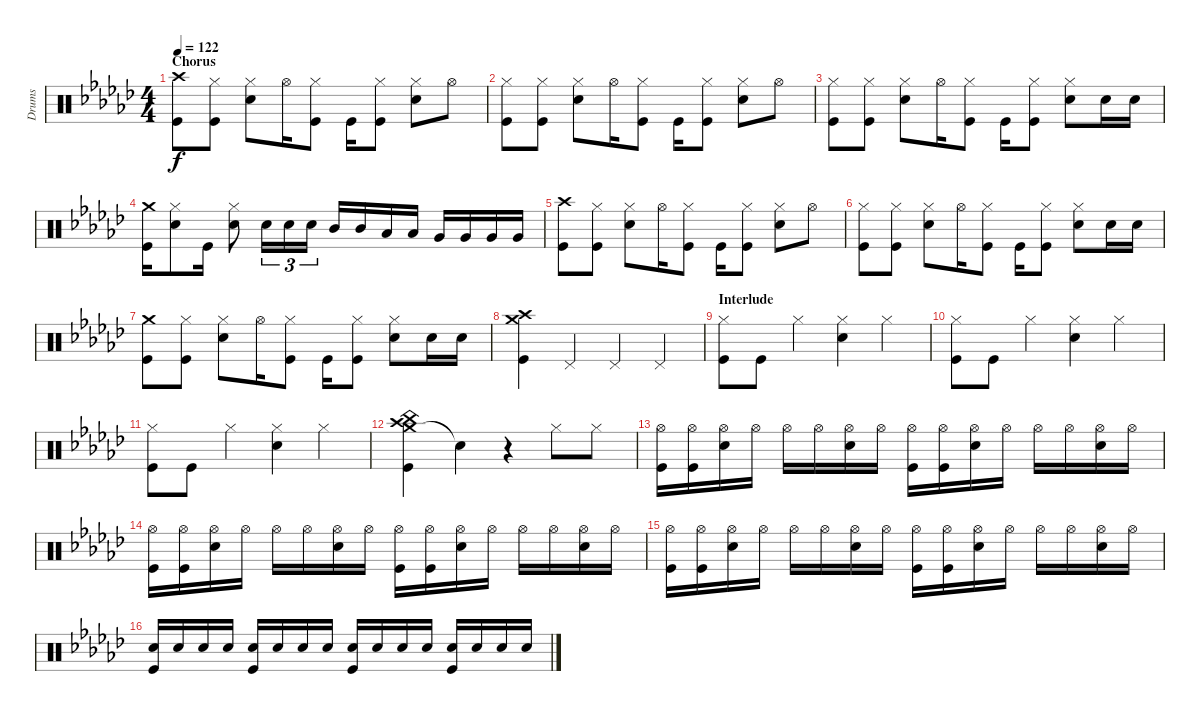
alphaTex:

\track ("Drums" "Drums") {instrument percussion}
\staff {score}
\articulation defaults
\ts (4 4)
\section ("" "Chorus")
\tempo 122
\clef neutral
\ks ebminor
("Crash high (hit)" "Kick (hit)").8{dy f} ("Hi-Hat (closed)" "Kick (hit)").8 ("Hi-Hat (closed)" "Snare (hit) 2").8 "Hi-Hat (open)".16 ("Hi-Hat (closed)" "Kick (hit)").8 "Kick (hit)".16 ("Hi-Hat (closed)" "Kick (hit)").8 ("Hi-Hat (closed)" "Snare (hit) 2").8 "Hi-Hat (open)".8 |
("Hi-Hat (closed)" "Kick (hit)").8 ("Hi-Hat (closed)" "Kick (hit)").8 ("Hi-Hat (closed)" "Snare (hit) 2").8 "Hi-Hat (open)".16 ("Hi-Hat (closed)" "Kick (hit)").8 "Kick (hit)".16 ("Hi-Hat (closed)" "Kick (hit)").8 ("Hi-Hat (closed)" "Snare (hit) 2").8 "Hi-Hat (open)".8 |
("Hi-Hat (closed)" "Kick (hit)").8 ("Hi-Hat (closed)" "Kick (hit)").8 ("Hi-Hat (closed)" "Snare (hit) 2").8 "Hi-Hat (open)".16 ("Hi-Hat (closed)" "Kick (hit)").8 "Kick (hit)".16 ("Hi-Hat (closed)" "Kick (hit)").8 ("Hi-Hat (closed)" "Snare (hit) 2").8 "Snare (hit) 2".16 "Snare (hit) 2".16 |
("Crash medium (hit)" "Kick (hit)").16 ("Hi-Hat (closed)" "Snare (hit) 2").8 "Kick (hit)".16 ("Hi-Hat (closed)" "Snare (hit) 2").8 "Snare (hit) 2".16{tu (3 2)} "Snare (hit) 2".16{tu (3 2)} "Snare (hit) 2".16{tu (3 2)} "Mid Tom (hit)".16 "Mid Tom (hit)".16 "Low Tom (hit)".16 "Low Tom (hit)".16 "Very Low Tom (hit)".16 "Very Low Tom (hit)".16 "Very Low Tom (hit)".16 "Very Low Tom (hit)".16 |
("Crash high (hit)" "Kick (hit)").8 ("Hi-Hat (closed)" "Kick (hit)").8 ("Hi-Hat (closed)" "Snare (hit) 2").8 "Hi-Hat (open)".16 ("Hi-Hat (closed)" "Kick (hit)").8 "Kick (hit)".16 ("Hi-Hat (closed)" "Kick (hit)").8 ("Hi-Hat (closed)" "Snare (hit) 2").8 "Hi-Hat (open)".8 |
("Hi-Hat (closed)" "Kick (hit)").8 ("Hi-Hat (closed)" "Kick (hit)").8 ("Hi-Hat (closed)" "Snare (hit) 2").8 "Hi-Hat (open)".16 ("Hi-Hat (closed)" "Kick (hit)").8 "Kick (hit)".16 ("Hi-Hat (closed)" "Kick (hit)").8 ("Hi-Hat (closed)" "Snare (hit) 2").8 "Snare (hit) 2".16 "Snare (hit) 2".16 |
("Crash medium (hit)" "Kick (hit)").8 ("Hi-Hat (closed)" "Kick (hit)").8 ("Hi-Hat (closed)" "Snare (hit) 2").8 "Hi-Hat (open)".16 ("Hi-Hat (closed)" "Kick (hit)").8 "Kick (hit)".16 ("Hi-Hat (closed)" "Kick (hit)").8 ("Hi-Hat (closed)" "Snare (hit) 2").8 "Snare (hit) 2".16 "Snare (hit) 2".16 |
("Crash medium (hit)" "Crash high (hit)" "Kick (hit)").4 "Pedal Hi-Hat (hit)".4 "Pedal Hi-Hat (hit)".4 "Pedal Hi-Hat (hit)".4 |
\section ("" "Interlude")
("Hi-Hat (closed)" "Kick (hit)").8 "Kick (hit)".8 "Hi-Hat (closed)".4 ("Hi-Hat (closed)" "Snare (hit) 2").4 "Hi-Hat (closed)".4 |
("Hi-Hat (closed)" "Kick (hit)").8 "Kick (hit)".8 "Hi-Hat (closed)".4 ("Hi-Hat (closed)" "Snare (hit) 2").4 "Hi-Hat (closed)".4 |
("Hi-Hat (closed)" "Kick (hit)").8 "Kick (hit)".8 "Hi-Hat (closed)".4 ("Hi-Hat (closed)" "Snare (hit) 2").4 "Hi-Hat (closed)".4 |
("Crash medium (hit)" "China (hit)" "Crash high (hit)" "Kick (hit)").4 "Snare (hit)"{t}.4 r.4 "Hi-Hat (closed)".8 "Hi-Hat (closed)".8 |
("Hi-Hat (open)" "Kick (hit)").16 ("Hi-Hat (open)" "Kick (hit)").16 ("Hi-Hat (open)" "Snare (hit) 2").16 "Hi-Hat (open)".16 "Hi-Hat (open)".16 "Hi-Hat (open)".16 ("Hi-Hat (open)" "Snare (hit) 2").16 "Hi-Hat (open)".16 ("Hi-Hat (open)" "Kick (hit)").16 ("Hi-Hat (open)" "Kick (hit)").16 ("Hi-Hat (open)" "Snare (hit) 2").16 "Hi-Hat (open)".16 "Hi-Hat (open)".16 "Hi-Hat (open)".16 ("Hi-Hat (open)" "Snare (hit) 2").16 "Hi-Hat (open)".16 |
("Hi-Hat (open)" "Kick (hit)").16 ("Hi-Hat (open)" "Kick (hit)").16 ("Hi-Hat (open)" "Snare (hit) 2").16 "Hi-Hat (open)".16 "Hi-Hat (open)".16 "Hi-Hat (open)".16 ("Hi-Hat (open)" "Snare (hit) 2").16 "Hi-Hat (open)".16 ("Hi-Hat (open)" "Kick (hit)").16 ("Hi-Hat (open)" "Kick (hit)").16 ("Hi-Hat (open)" "Snare (hit) 2").16 "Hi-Hat (open)".16 "Hi-Hat (open)".16 "Hi-Hat (open)".16 ("Hi-Hat (open)" "Snare (hit) 2").16 "Hi-Hat (open)".16 |
("Hi-Hat (open)" "Kick (hit)").16 ("Hi-Hat (open)" "Kick (hit)").16 ("Hi-Hat (open)" "Snare (hit) 2").16 "Hi-Hat (open)".16 "Hi-Hat (open)".16 "Hi-Hat (open)".16 ("Hi-Hat (open)" "Snare (hit) 2").16 "Hi-Hat (open)".16 ("Hi-Hat (open)" "Kick (hit)").16 ("Hi-Hat (open)" "Kick (hit)").16 ("Hi-Hat (open)" "Snare (hit) 2").16 "Hi-Hat (open)".16 "Hi-Hat (open)".16 "Hi-Hat (open)".16 ("Hi-Hat (open)" "Snare (hit) 2").16 "Hi-Hat (open)".16 |
("Snare (hit) 2" "Kick (hit)").16 "Snare (hit) 2".16 "Snare (hit) 2".16 "Snare (hit) 2".16 ("Snare (hit) 2" "Kick (hit)").16 "Snare (hit) 2".16 "Snare (hit) 2".16 "Snare (hit) 2".16 ("Snare (hit) 2" "Kick (hit)").16 "Snare (hit) 2".16 "Snare (hit) 2".16 "Snare (hit) 2".16 ("Snare (hit) 2" "Kick (hit)").16 "Snare (hit) 2".16 "Snare (hit) 2".16 "Snare (hit) 2".16
